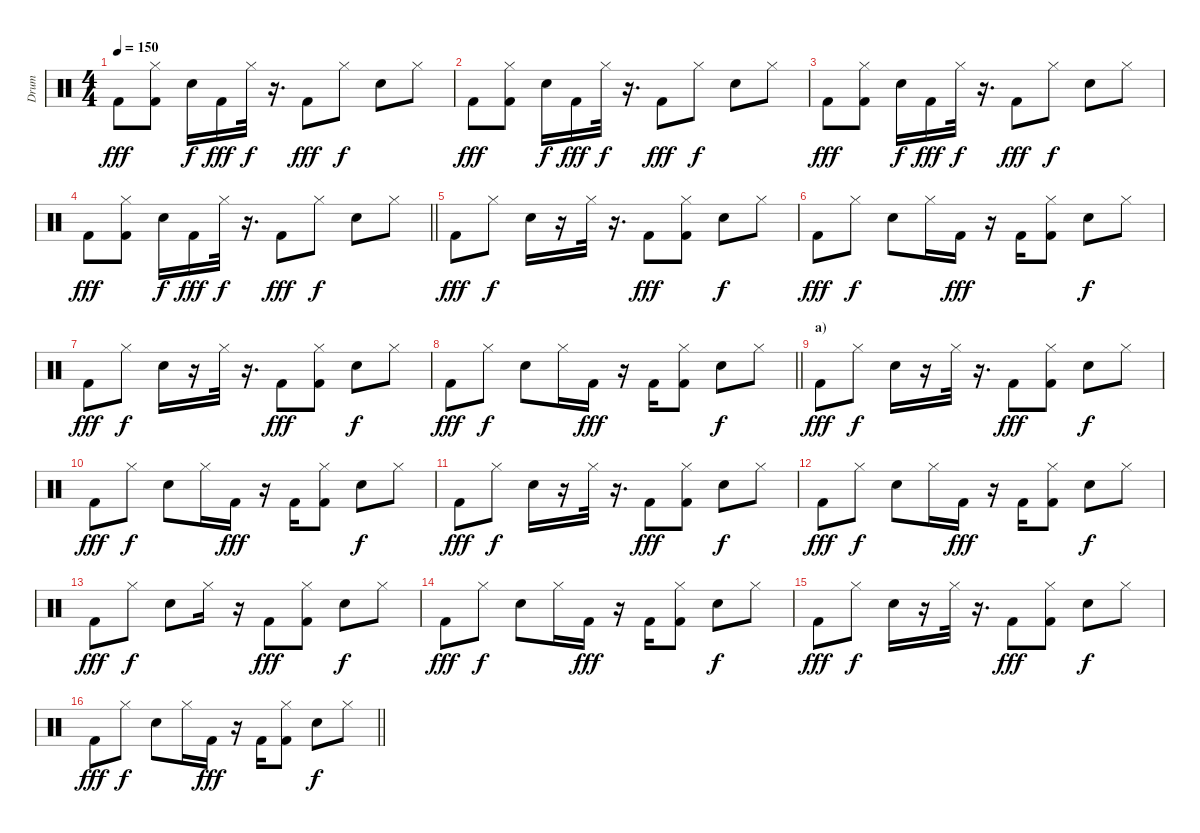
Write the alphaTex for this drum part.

\track ("Drum" "Drum") {instrument percussion}
\staff {score}
\articulation defaults
\ts (4 4)
\tempo 150
\clef neutral
\ks c "Kick (hit) 2".8{dy fff}
("Hi-Hat (closed)" "Kick (hit) 2").8 "Electric Snare (hit)".16{dy f} "Kick (hit) 2".16{dy fff} "Hi-Hat (closed)".32{dy f} r.16{d} "Kick (hit) 2".8{dy fff} "Hi-Hat (closed)".8{dy f} "Electric Snare (hit)".8 "Hi-Hat (closed)".8 |
"Kick (hit) 2".8{dy fff} ("Hi-Hat (closed)" "Kick (hit) 2").8 "Electric Snare (hit)".16{dy f} "Kick (hit) 2".16{dy fff} "Hi-Hat (closed)".32{dy f} r.16{d} "Kick (hit) 2".8{dy fff} "Hi-Hat (closed)".8{dy f} "Electric Snare (hit)".8 "Hi-Hat (closed)".8 |
"Kick (hit) 2".8{dy fff} ("Hi-Hat (closed)" "Kick (hit) 2").8 "Electric Snare (hit)".16{dy f} "Kick (hit) 2".16{dy fff} "Hi-Hat (closed)".32{dy f} r.16{d} "Kick (hit) 2".8{dy fff} "Hi-Hat (closed)".8{dy f} "Electric Snare (hit)".8 "Hi-Hat (closed)".8 |
\barLineRight lightlight "Kick (hit) 2".8{dy fff}
("Hi-Hat (closed)" "Kick (hit) 2").8 "Electric Snare (hit)".16{dy f} "Kick (hit) 2".16{dy fff} "Hi-Hat (closed)".32{dy f} r.16{d} "Kick (hit) 2".8{dy fff} "Hi-Hat (closed)".8{dy f} "Electric Snare (hit)".8 "Hi-Hat (closed)".8 |
\section ("" "")
"Kick (hit) 2".8{dy fff} "Hi-Hat (closed)".8{dy f} "Electric Snare (hit)".16 r.16 "Hi-Hat (closed)".32 r.16{d} "Kick (hit) 2".8{dy fff} ("Hi-Hat (closed)" "Kick (hit) 2").8 "Electric Snare (hit)".8{dy f} "Hi-Hat (closed)".8 |
"Kick (hit) 2".8{dy fff} "Hi-Hat (closed)".8{dy f} "Electric Snare (hit)".8 "Hi-Hat (closed)".16 "Kick (hit) 2".16{dy fff} r.16 "Kick (hit) 2".16 ("Hi-Hat (closed)" "Kick (hit) 2").8 "Electric Snare (hit)".8{dy f} "Hi-Hat (closed)".8 |
"Kick (hit) 2".8{dy fff} "Hi-Hat (closed)".8{dy f} "Electric Snare (hit)".16 r.16 "Hi-Hat (closed)".32 r.16{d} "Kick (hit) 2".8{dy fff} ("Hi-Hat (closed)" "Kick (hit) 2").8 "Electric Snare (hit)".8{dy f} "Hi-Hat (closed)".8 |
\barLineRight lightlight "Kick (hit) 2".8{dy fff} "Hi-Hat (closed)".8{dy f} "Electric Snare (hit)".8 "Hi-Hat (closed)".16 "Kick (hit) 2".16{dy fff}
r.16 "Kick (hit) 2".16 ("Hi-Hat (closed)" "Kick (hit) 2").8 "Electric Snare (hit)".8{dy f} "Hi-Hat (closed)".8 |
\section ("" "a)")
"Kick (hit) 2".8{dy fff} "Hi-Hat (closed)".8{dy f} "Electric Snare (hit)".16 r.16 "Hi-Hat (closed)".32 r.16{d} "Kick (hit) 2".8{dy fff} ("Hi-Hat (closed)" "Kick (hit) 2").8 "Electric Snare (hit)".8{dy f} "Hi-Hat (closed)".8 |
"Kick (hit) 2".8{dy fff} "Hi-Hat (closed)".8{dy f} "Electric Snare (hit)".8 "Hi-Hat (closed)".16 "Kick (hit) 2".16{dy fff} r.16 "Kick (hit) 2".16 ("Hi-Hat (closed)" "Kick (hit) 2").8 "Electric Snare (hit)".8{dy f} "Hi-Hat (closed)".8 |
"Kick (hit) 2".8{dy fff} "Hi-Hat (closed)".8{dy f} "Electric Snare (hit)".16 r.16 "Hi-Hat (closed)".32 r.16{d} "Kick (hit) 2".8{dy fff} ("Hi-Hat (closed)" "Kick (hit) 2").8 "Electric Snare (hit)".8{dy f} "Hi-Hat (closed)".8 |
"Kick (hit) 2".8{dy fff} "Hi-Hat (closed)".8{dy f} "Electric Snare (hit)".8 "Hi-Hat (closed)".16 "Kick (hit) 2".16{dy fff} r.16 "Kick (hit) 2".16 ("Hi-Hat (closed)" "Kick (hit) 2").8 "Electric Snare (hit)".8{dy f} "Hi-Hat (closed)".8 |
"Kick (hit) 2".8{dy fff} "Hi-Hat (closed)".8{dy f} "Electric Snare (hit)".8 "Hi-Hat (closed)".16 r.16 "Kick (hit) 2".8{dy fff} ("Hi-Hat (closed)" "Kick (hit) 2").8 "Electric Snare (hit)".8{dy f} "Hi-Hat (closed)".8 |
"Kick (hit) 2".8{dy fff} "Hi-Hat (closed)".8{dy f} "Electric Snare (hit)".8 "Hi-Hat (closed)".16 "Kick (hit) 2".16{dy fff} r.16 "Kick (hit) 2".16 ("Hi-Hat (closed)" "Kick (hit) 2").8 "Electric Snare (hit)".8{dy f} "Hi-Hat (closed)".8 |
"Kick (hit) 2".8{dy fff} "Hi-Hat (closed)".8{dy f} "Electric Snare (hit)".16 r.16 "Hi-Hat (closed)".32 r.16{d} "Kick (hit) 2".8{dy fff} ("Hi-Hat (closed)" "Kick (hit) 2").8 "Electric Snare (hit)".8{dy f} "Hi-Hat (closed)".8 |
\barLineRight lightlight "Kick (hit) 2".8{dy fff} "Hi-Hat (closed)".8{dy f} "Electric Snare (hit)".8 "Hi-Hat (closed)".16 "Kick (hit) 2".16{dy fff}
r.16 "Kick (hit) 2".16 ("Hi-Hat (closed)" "Kick (hit) 2").8 "Electric Snare (hit)".8{dy f} "Hi-Hat (closed)".8
